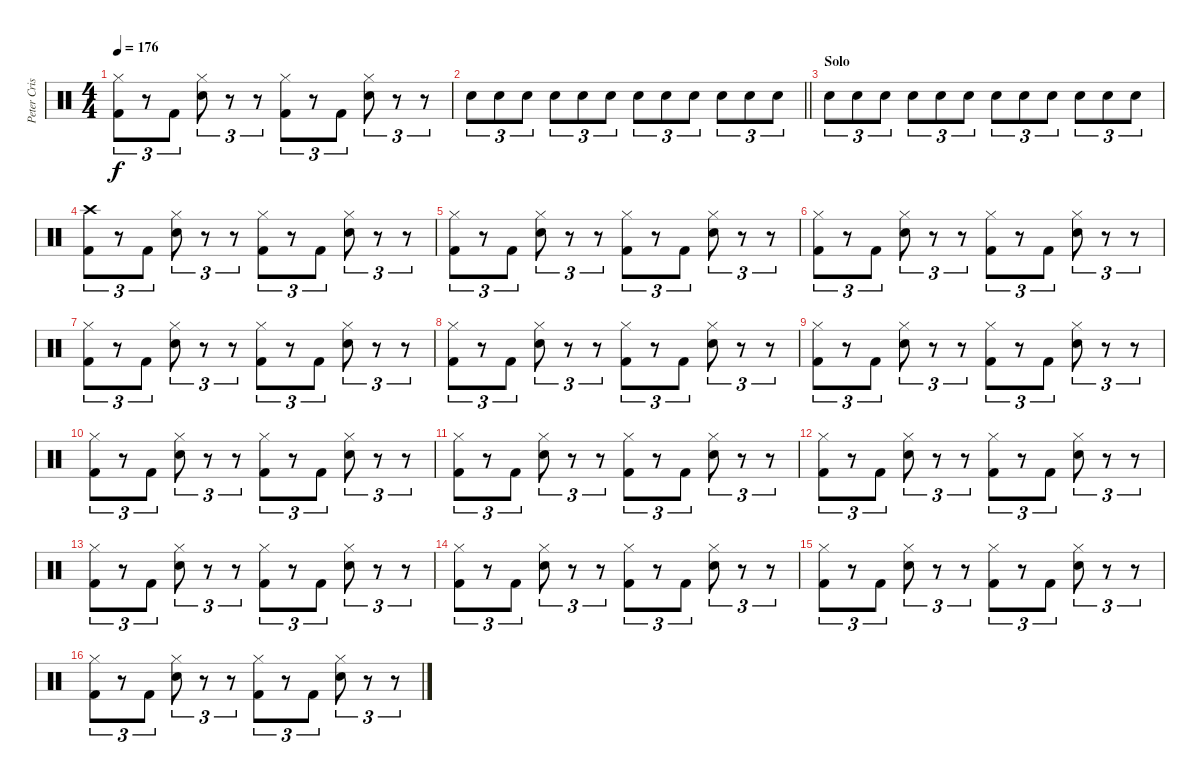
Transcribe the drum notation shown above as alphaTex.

\track ("Peter Criss" "Peter Cris") {instrument percussion}
\staff {score}
\articulation defaults
\ts (4 4)
\tempo 176
\clef neutral
\ks c
("Hi-Hat (closed)" "Kick (hit) 2").8{tu (3 2) dy f} r.8{tu (3 2)} "Kick (hit) 2".8{tu (3 2)} ("Hi-Hat (closed)" "Electric Snare (hit)").8{tu (3 2)} r.8{tu (3 2)} r.8{tu (3 2)} ("Hi-Hat (closed)" "Kick (hit) 2").8{tu (3 2)} r.8{tu (3 2)} "Kick (hit) 2".8{tu (3 2)} ("Hi-Hat (closed)" "Electric Snare (hit)").8{tu (3 2)} r.8{tu (3 2)} r.8{tu (3 2)} |
\barLineRight lightlight "Electric Snare (hit)".8{tu (3 2)} "Electric Snare (hit)".8{tu (3 2)} "Electric Snare (hit)".8{tu (3 2)} "Electric Snare (hit)".8{tu (3 2)} "Electric Snare (hit)".8{tu (3 2)} "Electric Snare (hit)".8{tu (3 2)} "Electric Snare (hit)".8{tu (3 2)} "Electric Snare (hit)".8{tu (3 2)} "Electric Snare (hit)".8{tu (3 2)} "Electric Snare (hit)".8{tu (3 2)} "Electric Snare (hit)".8{tu (3 2)} "Electric Snare (hit)".8{tu (3 2)}
|
\section ("" "Solo")
"Electric Snare (hit)".8{tu (3 2)} "Electric Snare (hit)".8{tu (3 2)} "Electric Snare (hit)".8{tu (3 2)} "Electric Snare (hit)".8{tu (3 2)} "Electric Snare (hit)".8{tu (3 2)} "Electric Snare (hit)".8{tu (3 2)} "Electric Snare (hit)".8{tu (3 2)} "Electric Snare (hit)".8{tu (3 2)} "Electric Snare (hit)".8{tu (3 2)} "Electric Snare (hit)".8{tu (3 2)} "Electric Snare (hit)".8{tu (3 2)} "Electric Snare (hit)".8{tu (3 2)} |
("Crash high (hit)" "Kick (hit) 2").8{tu (3 2)} r.8{tu (3 2)} "Kick (hit) 2".8{tu (3 2)} ("Hi-Hat (closed)" "Electric Snare (hit)").8{tu (3 2)} r.8{tu (3 2)} r.8{tu (3 2)} ("Hi-Hat (closed)" "Kick (hit) 2").8{tu (3 2)} r.8{tu (3 2)} "Kick (hit) 2".8{tu (3 2)} ("Hi-Hat (closed)" "Electric Snare (hit)").8{tu (3 2)} r.8{tu (3 2)} r.8{tu (3 2)} |
("Hi-Hat (closed)" "Kick (hit) 2").8{tu (3 2)} r.8{tu (3 2)} "Kick (hit) 2".8{tu (3 2)} ("Hi-Hat (closed)" "Electric Snare (hit)").8{tu (3 2)} r.8{tu (3 2)} r.8{tu (3 2)} ("Hi-Hat (closed)" "Kick (hit) 2").8{tu (3 2)} r.8{tu (3 2)} "Kick (hit) 2".8{tu (3 2)} ("Hi-Hat (closed)" "Electric Snare (hit)").8{tu (3 2)} r.8{tu (3 2)} r.8{tu (3 2)} |
("Hi-Hat (closed)" "Kick (hit) 2").8{tu (3 2)} r.8{tu (3 2)} "Kick (hit) 2".8{tu (3 2)} ("Hi-Hat (closed)" "Electric Snare (hit)").8{tu (3 2)} r.8{tu (3 2)} r.8{tu (3 2)} ("Hi-Hat (closed)" "Kick (hit) 2").8{tu (3 2)} r.8{tu (3 2)} "Kick (hit) 2".8{tu (3 2)} ("Hi-Hat (closed)" "Electric Snare (hit)").8{tu (3 2)} r.8{tu (3 2)} r.8{tu (3 2)} |
("Hi-Hat (closed)" "Kick (hit) 2").8{tu (3 2)} r.8{tu (3 2)} "Kick (hit) 2".8{tu (3 2)} ("Hi-Hat (closed)" "Electric Snare (hit)").8{tu (3 2)} r.8{tu (3 2)} r.8{tu (3 2)} ("Hi-Hat (closed)" "Kick (hit) 2").8{tu (3 2)} r.8{tu (3 2)} "Kick (hit) 2".8{tu (3 2)} ("Hi-Hat (closed)" "Electric Snare (hit)").8{tu (3 2)} r.8{tu (3 2)} r.8{tu (3 2)} |
("Hi-Hat (closed)" "Kick (hit) 2").8{tu (3 2)} r.8{tu (3 2)} "Kick (hit) 2".8{tu (3 2)} ("Hi-Hat (closed)" "Electric Snare (hit)").8{tu (3 2)} r.8{tu (3 2)} r.8{tu (3 2)} ("Hi-Hat (closed)" "Kick (hit) 2").8{tu (3 2)} r.8{tu (3 2)} "Kick (hit) 2".8{tu (3 2)} ("Hi-Hat (closed)" "Electric Snare (hit)").8{tu (3 2)} r.8{tu (3 2)} r.8{tu (3 2)} |
("Hi-Hat (closed)" "Kick (hit) 2").8{tu (3 2)} r.8{tu (3 2)} "Kick (hit) 2".8{tu (3 2)} ("Hi-Hat (closed)" "Electric Snare (hit)").8{tu (3 2)} r.8{tu (3 2)} r.8{tu (3 2)} ("Hi-Hat (closed)" "Kick (hit) 2").8{tu (3 2)} r.8{tu (3 2)} "Kick (hit) 2".8{tu (3 2)} ("Hi-Hat (closed)" "Electric Snare (hit)").8{tu (3 2)} r.8{tu (3 2)} r.8{tu (3 2)} |
("Hi-Hat (closed)" "Kick (hit) 2").8{tu (3 2)} r.8{tu (3 2)} "Kick (hit) 2".8{tu (3 2)} ("Hi-Hat (closed)" "Electric Snare (hit)").8{tu (3 2)} r.8{tu (3 2)} r.8{tu (3 2)} ("Hi-Hat (closed)" "Kick (hit) 2").8{tu (3 2)} r.8{tu (3 2)} "Kick (hit) 2".8{tu (3 2)} ("Hi-Hat (closed)" "Electric Snare (hit)").8{tu (3 2)} r.8{tu (3 2)} r.8{tu (3 2)} |
("Hi-Hat (closed)" "Kick (hit) 2").8{tu (3 2)} r.8{tu (3 2)} "Kick (hit) 2".8{tu (3 2)} ("Hi-Hat (closed)" "Electric Snare (hit)").8{tu (3 2)} r.8{tu (3 2)} r.8{tu (3 2)} ("Hi-Hat (closed)" "Kick (hit) 2").8{tu (3 2)} r.8{tu (3 2)} "Kick (hit) 2".8{tu (3 2)} ("Hi-Hat (closed)" "Electric Snare (hit)").8{tu (3 2)} r.8{tu (3 2)} r.8{tu (3 2)} |
("Hi-Hat (closed)" "Kick (hit) 2").8{tu (3 2)} r.8{tu (3 2)} "Kick (hit) 2".8{tu (3 2)} ("Hi-Hat (closed)" "Electric Snare (hit)").8{tu (3 2)} r.8{tu (3 2)} r.8{tu (3 2)} ("Hi-Hat (closed)" "Kick (hit) 2").8{tu (3 2)} r.8{tu (3 2)} "Kick (hit) 2".8{tu (3 2)} ("Hi-Hat (closed)" "Electric Snare (hit)").8{tu (3 2)} r.8{tu (3 2)} r.8{tu (3 2)} |
("Hi-Hat (closed)" "Kick (hit) 2").8{tu (3 2)} r.8{tu (3 2)} "Kick (hit) 2".8{tu (3 2)} ("Hi-Hat (closed)" "Electric Snare (hit)").8{tu (3 2)} r.8{tu (3 2)} r.8{tu (3 2)} ("Hi-Hat (closed)" "Kick (hit) 2").8{tu (3 2)} r.8{tu (3 2)} "Kick (hit) 2".8{tu (3 2)} ("Hi-Hat (closed)" "Electric Snare (hit)").8{tu (3 2)} r.8{tu (3 2)} r.8{tu (3 2)} |
("Hi-Hat (closed)" "Kick (hit) 2").8{tu (3 2)} r.8{tu (3 2)} "Kick (hit) 2".8{tu (3 2)} ("Hi-Hat (closed)" "Electric Snare (hit)").8{tu (3 2)} r.8{tu (3 2)} r.8{tu (3 2)} ("Hi-Hat (closed)" "Kick (hit) 2").8{tu (3 2)} r.8{tu (3 2)} "Kick (hit) 2".8{tu (3 2)} ("Hi-Hat (closed)" "Electric Snare (hit)").8{tu (3 2)} r.8{tu (3 2)} r.8{tu (3 2)} |
("Hi-Hat (closed)" "Kick (hit) 2").8{tu (3 2)} r.8{tu (3 2)} "Kick (hit) 2".8{tu (3 2)} ("Hi-Hat (closed)" "Electric Snare (hit)").8{tu (3 2)} r.8{tu (3 2)} r.8{tu (3 2)} ("Hi-Hat (closed)" "Kick (hit) 2").8{tu (3 2)} r.8{tu (3 2)} "Kick (hit) 2".8{tu (3 2)} ("Hi-Hat (closed)" "Electric Snare (hit)").8{tu (3 2)} r.8{tu (3 2)} r.8{tu (3 2)} |
("Hi-Hat (closed)" "Kick (hit) 2").8{tu (3 2)} r.8{tu (3 2)} "Kick (hit) 2".8{tu (3 2)} ("Hi-Hat (closed)" "Electric Snare (hit)").8{tu (3 2)} r.8{tu (3 2)} r.8{tu (3 2)} ("Hi-Hat (closed)" "Kick (hit) 2").8{tu (3 2)} r.8{tu (3 2)} "Kick (hit) 2".8{tu (3 2)} ("Hi-Hat (closed)" "Electric Snare (hit)").8{tu (3 2)} r.8{tu (3 2)} r.8{tu (3 2)}
